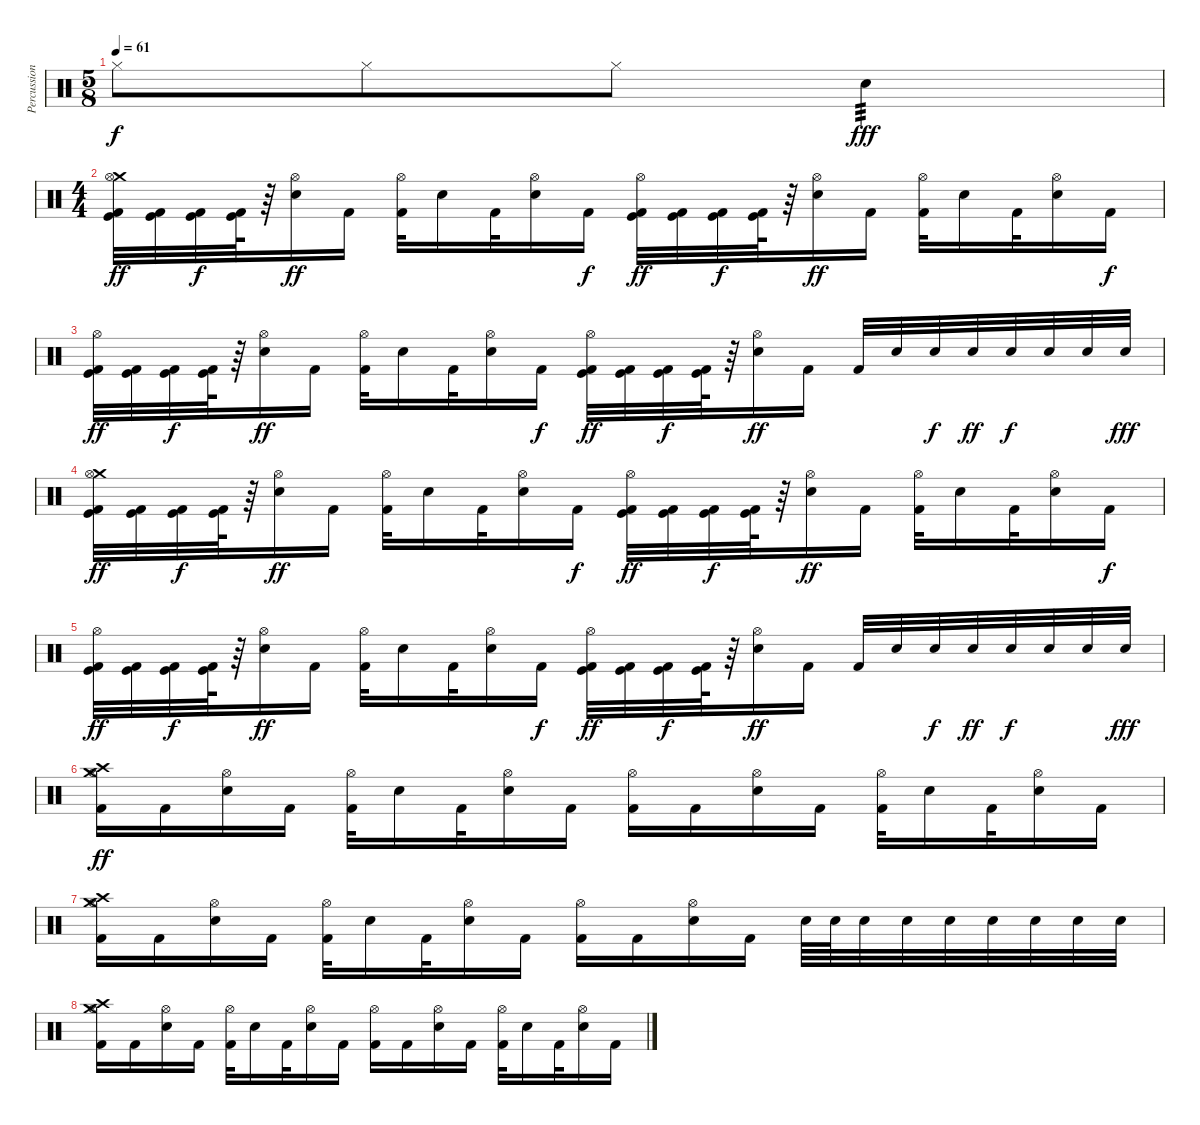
\track ("Percussion" "Percussion") {solo instrument percussion}
\staff {score}
\articulation defaults
\ts (5 8)
\tempo 61
\clef neutral
\ks c "Hi-Hat (closed)".8{dy f} "Hi-Hat (closed)".8 "Hi-Hat (closed)".8 "Electric Snare (hit)".4{tp 3 dy fff}
|
\ts (4 4)
("Crash medium (hit)" "Hi-Hat (open)" "Kick (hit)" "Kick (hit) 2").32{dy ff} ("Kick (hit)" "Kick (hit) 2").32 ("Kick (hit)" "Kick (hit) 2").32{dy f} ("Kick (hit)" "Kick (hit) 2").64 r.64 ("Hi-Hat (open)" "Electric Snare (hit)").16{dy ff} "Kick (hit) 2".16 ("Hi-Hat (open)" "Kick (hit) 2").32 "Electric Snare (hit)".16 "Kick (hit) 2".32 ("Hi-Hat (open)" "Electric Snare (hit)").16 "Kick (hit) 2".16{dy f} ("Hi-Hat (open)" "Kick (hit)" "Kick (hit) 2").32{dy ff} ("Kick (hit)" "Kick (hit) 2").32 ("Kick (hit)" "Kick (hit) 2").32{dy f} ("Kick (hit)" "Kick (hit) 2").64 r.64 ("Hi-Hat (open)" "Electric Snare (hit)").16{dy ff} "Kick (hit) 2".16 ("Hi-Hat (open)" "Kick (hit) 2").32 "Electric Snare (hit)".16 "Kick (hit) 2".32 ("Hi-Hat (open)" "Electric Snare (hit)").16 "Kick (hit) 2".16{dy f} |
("Hi-Hat (open)" "Kick (hit)" "Kick (hit) 2").32{dy ff} ("Kick (hit)" "Kick (hit) 2").32 ("Kick (hit)" "Kick (hit) 2").32{dy f} ("Kick (hit)" "Kick (hit) 2").64 r.64 ("Hi-Hat (open)" "Electric Snare (hit)").16{dy ff} "Kick (hit) 2".16 ("Hi-Hat (open)" "Kick (hit) 2").32 "Electric Snare (hit)".16 "Kick (hit) 2".32 ("Hi-Hat (open)" "Electric Snare (hit)").16 "Kick (hit) 2".16{dy f} ("Hi-Hat (open)" "Kick (hit)" "Kick (hit) 2").32{dy ff} ("Kick (hit)" "Kick (hit) 2").32 ("Kick (hit)" "Kick (hit) 2").32{dy f} ("Kick (hit)" "Kick (hit) 2").64 r.64 ("Hi-Hat (open)" "Electric Snare (hit)").16{dy ff} "Kick (hit) 2".16 "Kick (hit) 2".32 "Electric Snare (hit)".32 "Electric Snare (hit)".32{dy f} "Electric Snare (hit)".32{dy ff} "Electric Snare (hit)".32{dy f} "Electric Snare (hit)".32 "Electric Snare (hit)".32 "Electric Snare (hit)".32{dy fff} |
("Crash medium (hit)" "Hi-Hat (open)" "Kick (hit)" "Kick (hit) 2").32{dy ff} ("Kick (hit)" "Kick (hit) 2").32 ("Kick (hit)" "Kick (hit) 2").32{dy f} ("Kick (hit)" "Kick (hit) 2").64 r.64 ("Hi-Hat (open)" "Electric Snare (hit)").16{dy ff} "Kick (hit) 2".16 ("Hi-Hat (open)" "Kick (hit) 2").32 "Electric Snare (hit)".16 "Kick (hit) 2".32 ("Hi-Hat (open)" "Electric Snare (hit)").16 "Kick (hit) 2".16{dy f} ("Hi-Hat (open)" "Kick (hit)" "Kick (hit) 2").32{dy ff} ("Kick (hit)" "Kick (hit) 2").32 ("Kick (hit)" "Kick (hit) 2").32{dy f} ("Kick (hit)" "Kick (hit) 2").64 r.64 ("Hi-Hat (open)" "Electric Snare (hit)").16{dy ff} "Kick (hit) 2".16 ("Hi-Hat (open)" "Kick (hit) 2").32 "Electric Snare (hit)".16 "Kick (hit) 2".32 ("Hi-Hat (open)" "Electric Snare (hit)").16 "Kick (hit) 2".16{dy f} |
("Hi-Hat (open)" "Kick (hit)" "Kick (hit) 2").32{dy ff} ("Kick (hit)" "Kick (hit) 2").32 ("Kick (hit)" "Kick (hit) 2").32{dy f} ("Kick (hit)" "Kick (hit) 2").64 r.64 ("Hi-Hat (open)" "Electric Snare (hit)").16{dy ff} "Kick (hit) 2".16 ("Hi-Hat (open)" "Kick (hit) 2").32 "Electric Snare (hit)".16 "Kick (hit) 2".32 ("Hi-Hat (open)" "Electric Snare (hit)").16 "Kick (hit) 2".16{dy f} ("Hi-Hat (open)" "Kick (hit)" "Kick (hit) 2").32{dy ff} ("Kick (hit)" "Kick (hit) 2").32 ("Kick (hit)" "Kick (hit) 2").32{dy f} ("Kick (hit)" "Kick (hit) 2").64 r.64 ("Hi-Hat (open)" "Electric Snare (hit)").16{dy ff} "Kick (hit) 2".16 "Kick (hit) 2".32 "Electric Snare (hit)".32 "Electric Snare (hit)".32{dy f} "Electric Snare (hit)".32{dy ff} "Electric Snare (hit)".32{dy f} "Electric Snare (hit)".32 "Electric Snare (hit)".32 "Electric Snare (hit)".32{dy fff} |
("Crash medium (hit)" "Hi-Hat (open)" "Crash high (hit)" "Kick (hit) 2").16{dy ff} "Kick (hit) 2".16 ("Hi-Hat (open)" "Electric Snare (hit)").16 "Kick (hit) 2".16 ("Hi-Hat (open)" "Kick (hit) 2").32 "Electric Snare (hit)".16 "Kick (hit) 2".32 ("Hi-Hat (open)" "Electric Snare (hit)").16 "Kick (hit) 2".16 ("Hi-Hat (open)" "Kick (hit) 2").16 "Kick (hit) 2".16 ("Hi-Hat (open)" "Electric Snare (hit)").16 "Kick (hit) 2".16 ("Hi-Hat (open)" "Kick (hit) 2").32 "Electric Snare (hit)".16 "Kick (hit) 2".32 ("Hi-Hat (open)" "Electric Snare (hit)").16 "Kick (hit) 2".16 |
("Crash medium (hit)" "Hi-Hat (open)" "Crash high (hit)" "Kick (hit) 2").16 "Kick (hit) 2".16 ("Hi-Hat (open)" "Electric Snare (hit)").16 "Kick (hit) 2".16 ("Hi-Hat (open)" "Kick (hit) 2").32 "Electric Snare (hit)".16 "Kick (hit) 2".32 ("Hi-Hat (open)" "Electric Snare (hit)").16 "Kick (hit) 2".16 ("Hi-Hat (open)" "Kick (hit) 2").16 "Kick (hit) 2".16 ("Hi-Hat (open)" "Electric Snare (hit)").16 "Kick (hit) 2".16 "Electric Snare (hit)".64 "Electric Snare (hit)".64 "Electric Snare (hit)".32 "Electric Snare (hit)".32 "Electric Snare (hit)".32 "Electric Snare (hit)".32 "Electric Snare (hit)".32 "Electric Snare (hit)".32 "Electric Snare (hit)".32 |
("Crash medium (hit)" "Hi-Hat (open)" "Crash high (hit)" "Kick (hit) 2").16 "Kick (hit) 2".16 ("Hi-Hat (open)" "Electric Snare (hit)").16 "Kick (hit) 2".16 ("Hi-Hat (open)" "Kick (hit) 2").32 "Electric Snare (hit)".16 "Kick (hit) 2".32 ("Hi-Hat (open)" "Electric Snare (hit)").16 "Kick (hit) 2".16 ("Hi-Hat (open)" "Kick (hit) 2").16 "Kick (hit) 2".16 ("Hi-Hat (open)" "Electric Snare (hit)").16 "Kick (hit) 2".16 ("Hi-Hat (open)" "Kick (hit) 2").32 "Electric Snare (hit)".16 "Kick (hit) 2".32 ("Hi-Hat (open)" "Electric Snare (hit)").16 "Kick (hit) 2".16
